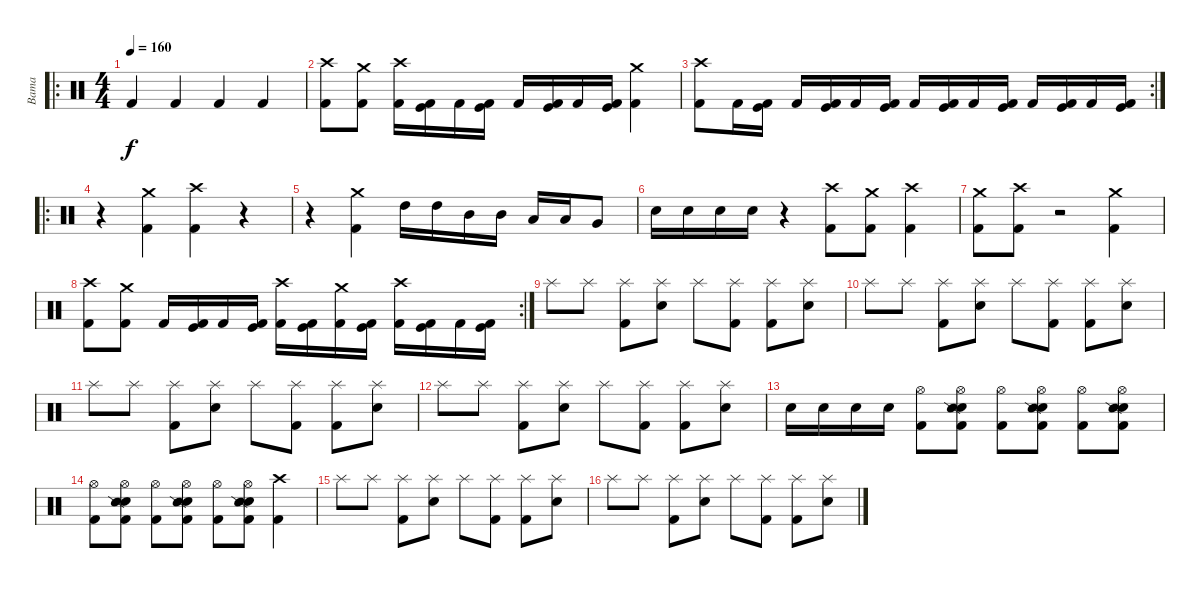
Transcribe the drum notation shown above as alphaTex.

\track ("Bama" "Bama") {instrument percussion}
\staff {score}
\articulation defaults
\ro
\ts (4 4)
\tempo 160
\clef neutral
\ks c "Kick (hit) 2".4{dy f} "Kick (hit) 2".4 "Kick (hit) 2".4 "Kick (hit) 2".4
|
("Crash high (hit)" "Kick (hit) 2").8 ("Crash medium (hit)" "Kick (hit) 2").8 ("Crash high (hit)" "Kick (hit) 2").16 ("Kick (hit)" "Kick (hit) 2").16 "Kick (hit) 2".16 ("Kick (hit)" "Kick (hit) 2").16 "Kick (hit) 2".16 ("Kick (hit)" "Kick (hit) 2").16 "Kick (hit) 2".16 ("Kick (hit)" "Kick (hit) 2").16 ("Crash medium (hit)" "Kick (hit) 2").4 |
\rc 2
("Crash high (hit)" "Kick (hit) 2").8 "Kick (hit) 2".16 ("Kick (hit)" "Kick (hit) 2").16 "Kick (hit) 2".16 ("Kick (hit)" "Kick (hit) 2").16 "Kick (hit) 2".16 ("Kick (hit)" "Kick (hit) 2").16 "Kick (hit) 2".16 ("Kick (hit)" "Kick (hit) 2").16 "Kick (hit) 2".16 ("Kick (hit)" "Kick (hit) 2").16 "Kick (hit) 2".16 ("Kick (hit)" "Kick (hit) 2").16 "Kick (hit) 2".16 ("Kick (hit)" "Kick (hit) 2").16 |
\ro
r.4 ("Crash medium (hit)" "Kick (hit) 2").4 ("Crash high (hit)" "Kick (hit) 2").4 r.4 |
r.4 ("Crash medium (hit)" "Kick (hit) 2").4 "High Tom (hit)".16 "High Tom (hit)".16 "Mid Tom (hit)".16 "Mid Tom (hit)".16 "Low Tom (hit)".16 "Low Tom (hit)".16 "Very Low Tom (hit)".8 |
"Electric Snare (hit)".16 "Electric Snare (hit)".16 "Electric Snare (hit)".16 "Electric Snare (hit)".16 r.4 ("Crash high (hit)" "Kick (hit) 2").8 ("Crash medium (hit)" "Kick (hit) 2").8 ("Crash high (hit)" "Kick (hit) 2").4 |
("Crash medium (hit)" "Kick (hit) 2").8 ("Crash high (hit)" "Kick (hit) 2").8 r.2 ("Crash medium (hit)" "Kick (hit) 2").4 |
\rc 2
("Crash high (hit)" "Kick (hit) 2").8 ("Crash medium (hit)" "Kick (hit) 2").8 "Kick (hit) 2".16 ("Kick (hit)" "Kick (hit) 2").16 "Kick (hit) 2".16 ("Kick (hit)" "Kick (hit) 2").16 ("Crash high (hit)" "Kick (hit) 2").16 ("Kick (hit)" "Kick (hit) 2").16 ("Crash medium (hit)" "Kick (hit) 2").16 ("Kick (hit)" "Kick (hit) 2").16 ("Crash high (hit)" "Kick (hit) 2").16 ("Kick (hit)" "Kick (hit) 2").16 "Kick (hit) 2".16 ("Kick (hit)" "Kick (hit) 2").16 |
"Splash (hit)".8 "Splash (hit)".8 ("Splash (hit)" "Kick (hit) 2").8 ("Splash (hit)" "Electric Snare (hit)").8 "Splash (hit)".8 ("Splash (hit)" "Kick (hit) 2").8 ("Splash (hit)" "Kick (hit) 2").8 ("Splash (hit)" "Electric Snare (hit)").8 |
"Splash (hit)".8 "Splash (hit)".8 ("Splash (hit)" "Kick (hit) 2").8 ("Splash (hit)" "Electric Snare (hit)").8 "Splash (hit)".8 ("Splash (hit)" "Kick (hit) 2").8 ("Splash (hit)" "Kick (hit) 2").8 ("Splash (hit)" "Electric Snare (hit)").8 |
"Splash (hit)".8 "Splash (hit)".8 ("Splash (hit)" "Kick (hit) 2").8 ("Splash (hit)" "Electric Snare (hit)").8 "Splash (hit)".8 ("Splash (hit)" "Kick (hit) 2").8 ("Splash (hit)" "Kick (hit) 2").8 ("Splash (hit)" "Electric Snare (hit)").8 |
"Splash (hit)".8 "Splash (hit)".8 ("Splash (hit)" "Kick (hit) 2").8 ("Splash (hit)" "Electric Snare (hit)").8 "Splash (hit)".8 ("Splash (hit)" "Kick (hit) 2").8 ("Splash (hit)" "Kick (hit) 2").8 ("Splash (hit)" "Electric Snare (hit)").8 |
"Electric Snare (hit)".16 "Electric Snare (hit)".16 "Electric Snare (hit)".16 "Electric Snare (hit)".16 ("Hi-Hat (open)" "Kick (hit) 2").8 ("Hi-Hat (open)" "Electric Snare (hit)" "Snare (side stick) 2" "Kick (hit) 2").8 ("Hi-Hat (open)" "Kick (hit) 2").8 ("Hi-Hat (open)" "Electric Snare (hit)" "Snare (side stick) 2" "Kick (hit) 2").8 ("Hi-Hat (open)" "Kick (hit) 2").8 ("Hi-Hat (open)" "Electric Snare (hit)" "Snare (side stick) 2" "Kick (hit) 2").8 |
("Hi-Hat (open)" "Kick (hit) 2").8 ("Hi-Hat (open)" "Electric Snare (hit)" "Snare (side stick) 2" "Kick (hit) 2").8 ("Hi-Hat (open)" "Kick (hit) 2").8 ("Hi-Hat (open)" "Electric Snare (hit)" "Snare (side stick) 2" "Kick (hit) 2").8 ("Hi-Hat (open)" "Kick (hit) 2").8 ("Hi-Hat (open)" "Electric Snare (hit)" "Snare (side stick) 2" "Kick (hit) 2").8 ("Crash high (hit)" "Kick (hit) 2").4 |
"Splash (hit)".8 "Splash (hit)".8 ("Splash (hit)" "Kick (hit) 2").8 ("Splash (hit)" "Electric Snare (hit)").8 "Splash (hit)".8 ("Splash (hit)" "Kick (hit) 2").8 ("Splash (hit)" "Kick (hit) 2").8 ("Splash (hit)" "Electric Snare (hit)").8 |
"Splash (hit)".8 "Splash (hit)".8 ("Splash (hit)" "Kick (hit) 2").8 ("Splash (hit)" "Electric Snare (hit)").8 "Splash (hit)".8 ("Splash (hit)" "Kick (hit) 2").8 ("Splash (hit)" "Kick (hit) 2").8 ("Splash (hit)" "Electric Snare (hit)").8
